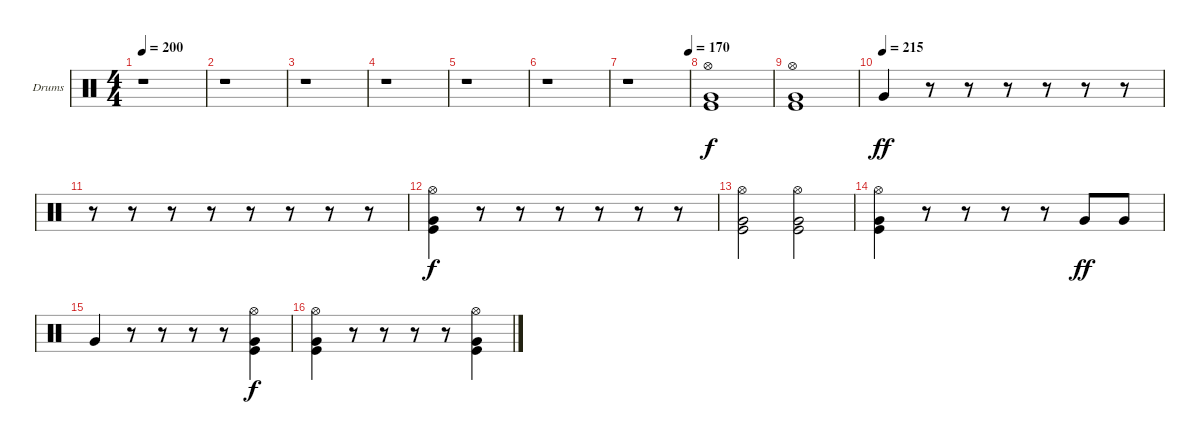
\defaultSystemsLayout 4
\bracketExtendMode groupsimilarinstruments
\firstSystemTrackNameOrientation horizontal
\otherSystemsTrackNameOrientation horizontal
\track ("Trey Williams" "Drums") {instrument percussion}
\staff {score}
\articulation defaults
\ts (4 4)
\tempo 200
\clef neutral
\ks c
r.1{dy f} |
r.1 |
r.1 |
r.1 |
r.1 |
r.1 |
\tempo (170 1)
r.1 |
("Hi-Hat (open)" "Kick (hit)" "Very Low Tom (hit)").1 |
("Hi-Hat (open)" "Kick (hit)" "Very Low Tom (hit)").1 |
\tempo (215)
"Very Low Tom (hit)".4{dy ff} r.8 r.8 r.8 r.8 r.8 r.8 |
r.8 r.8 r.8 r.8 r.8 r.8 r.8 r.8 |
("Kick (hit)" "Hi-Hat (open)" "Very Low Tom (hit)").4{dy f} r.8 r.8 r.8 r.8 r.8 r.8 |
("Kick (hit)" "Hi-Hat (open)" "Very Low Tom (hit)").2 ("Kick (hit)" "Hi-Hat (open)" "Very Low Tom (hit)").2 |
("Kick (hit)" "Hi-Hat (open)" "Very Low Tom (hit)").4 r.8 r.8 r.8 r.8 "Very Low Tom (hit)".8{dy ff} "Very Low Tom (hit)".8 |
"Very Low Tom (hit)".4 r.8 r.8 r.8 r.8 ("Kick (hit)" "Hi-Hat (open)" "Very Low Tom (hit)").4{dy f} |
("Kick (hit)" "Hi-Hat (open)" "Very Low Tom (hit)").4 r.8 r.8 r.8 r.8 ("Kick (hit)" "Hi-Hat (open)" "Very Low Tom (hit)").4
